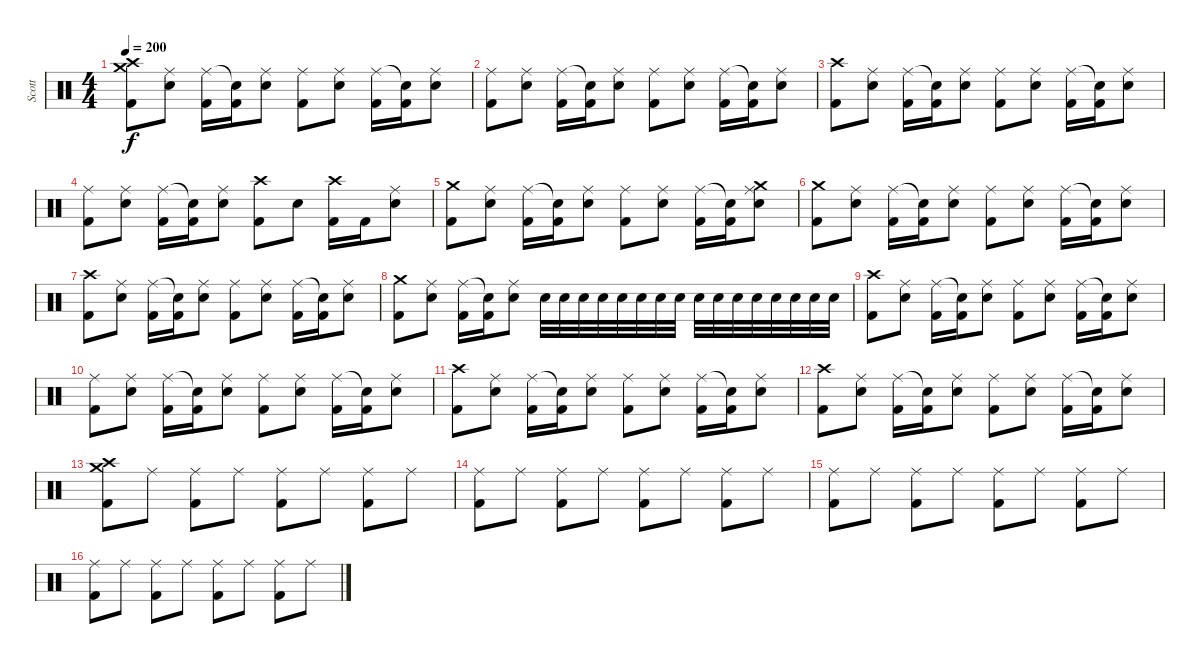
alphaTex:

\track ("Scott" "Scott") {instrument percussion}
\staff {score}
\articulation defaults
\ts (4 4)
\tempo 200
\clef neutral
\ks c
("Crash medium (hit)" "Crash high (hit)" "Kick (hit) 2").8{dy f} ("Ride (middle)" "Snare (hit) 2").8 ("Ride (middle)" "Kick (hit) 2").16 ("Snare (hit)"{t} "Kick (hit) 2").16 ("Ride (middle)" "Snare (hit) 2").8 ("Ride (middle)" "Kick (hit) 2").8 ("Ride (middle)" "Snare (hit) 2").8 ("Ride (middle)" "Kick (hit) 2").16 ("Snare (hit)"{t} "Kick (hit) 2").16 ("Ride (middle)" "Snare (hit) 2").8 |
("Ride (middle)" "Kick (hit) 2").8 ("Ride (middle)" "Snare (hit) 2").8 ("Ride (middle)" "Kick (hit) 2").16 ("Snare (hit)"{t} "Kick (hit) 2").16 ("Ride (middle)" "Snare (hit) 2").8 ("Ride (middle)" "Kick (hit) 2").8 ("Ride (middle)" "Snare (hit) 2").8 ("Ride (middle)" "Kick (hit) 2").16 ("Snare (hit)"{t} "Kick (hit) 2").16 ("Ride (middle)" "Snare (hit) 2").8 |
("Crash high (hit)" "Kick (hit) 2").8 ("Ride (middle)" "Snare (hit) 2").8 ("Ride (middle)" "Kick (hit) 2").16 ("Snare (hit)"{t} "Kick (hit) 2").16 ("Ride (middle)" "Snare (hit) 2").8 ("Ride (middle)" "Kick (hit) 2").8 ("Ride (middle)" "Snare (hit) 2").8 ("Ride (middle)" "Kick (hit) 2").16 ("Snare (hit)"{t} "Kick (hit) 2").16 ("Ride (middle)" "Snare (hit) 2").8 |
("Ride (middle)" "Kick (hit) 2").8 ("Ride (middle)" "Snare (hit) 2").8 ("Ride (middle)" "Kick (hit) 2").16 ("Snare (hit)"{t} "Kick (hit) 2").16 ("Ride (middle)" "Snare (hit) 2").8 ("Crash high (hit)" "Kick (hit) 2").8 "Snare (hit) 2".8 ("Crash high (hit)" "Kick (hit) 2").16 "Kick (hit) 2".16 ("Ride (middle)" "Snare (hit) 2").8 |
("Crash medium (hit)" "Kick (hit) 2").8 ("Ride (middle)" "Snare (hit) 2").8 ("Ride (middle)" "Kick (hit) 2").16 ("Snare (hit)"{t} "Kick (hit) 2").16 ("Ride (middle)" "Snare (hit) 2").8 ("Ride (middle)" "Kick (hit) 2").8 ("Ride (middle)" "Snare (hit) 2").8 ("Ride (middle)" "Kick (hit) 2").16 ("Snare (hit)"{t} "Kick (hit) 2").16 ("Crash medium (hit)" "Ride (middle)" "Snare (hit) 2").8 |
("Crash medium (hit)" "Kick (hit) 2").8 ("Ride (middle)" "Snare (hit) 2").8 ("Ride (middle)" "Kick (hit) 2").16 ("Snare (hit)"{t} "Kick (hit) 2").16 ("Ride (middle)" "Snare (hit) 2").8 ("Ride (middle)" "Kick (hit) 2").8 ("Ride (middle)" "Snare (hit) 2").8 ("Ride (middle)" "Kick (hit) 2").16 ("Snare (hit)"{t} "Kick (hit) 2").16 ("Ride (middle)" "Snare (hit) 2").8 |
("Crash high (hit)" "Kick (hit) 2").8 ("Ride (middle)" "Snare (hit) 2").8 ("Ride (middle)" "Kick (hit) 2").16 ("Snare (hit)"{t} "Kick (hit) 2").16 ("Ride (middle)" "Snare (hit) 2").8 ("Ride (middle)" "Kick (hit) 2").8 ("Ride (middle)" "Snare (hit) 2").8 ("Ride (middle)" "Kick (hit) 2").16 ("Snare (hit)"{t} "Kick (hit) 2").16 ("Ride (middle)" "Snare (hit) 2").8 |
("Crash medium (hit)" "Kick (hit) 2").8 ("Ride (middle)" "Snare (hit) 2").8 ("Ride (middle)" "Kick (hit) 2").16 ("Snare (hit)"{t} "Kick (hit) 2").16 ("Ride (middle)" "Snare (hit) 2").8 "Snare (hit) 2".32 "Snare (hit) 2".32 "Snare (hit) 2".32 "Snare (hit) 2".32 "Snare (hit) 2".32 "Snare (hit) 2".32 "Snare (hit) 2".32 "Snare (hit) 2".32 "Snare (hit) 2".32 "Snare (hit) 2".32 "Snare (hit) 2".32 "Snare (hit) 2".32 "Snare (hit) 2".32 "Snare (hit) 2".32 "Snare (hit) 2".32 "Snare (hit) 2".32 |
("Crash high (hit)" "Kick (hit) 2").8 ("Ride (middle)" "Snare (hit) 2").8 ("Ride (middle)" "Kick (hit) 2").16 ("Snare (hit)"{t} "Kick (hit) 2").16 ("Ride (middle)" "Snare (hit) 2").8 ("Ride (middle)" "Kick (hit) 2").8 ("Ride (middle)" "Snare (hit) 2").8 ("Ride (middle)" "Kick (hit) 2").16 ("Snare (hit)"{t} "Kick (hit) 2").16 ("Ride (middle)" "Snare (hit) 2").8 |
("Ride (middle)" "Kick (hit) 2").8 ("Ride (middle)" "Snare (hit) 2").8 ("Ride (middle)" "Kick (hit) 2").16 ("Snare (hit)"{t} "Kick (hit) 2").16 ("Ride (middle)" "Snare (hit) 2").8 ("Ride (middle)" "Kick (hit) 2").8 ("Ride (middle)" "Snare (hit) 2").8 ("Ride (middle)" "Kick (hit) 2").16 ("Snare (hit)"{t} "Kick (hit) 2").16 ("Ride (middle)" "Snare (hit) 2").8 |
("Crash high (hit)" "Kick (hit) 2").8 ("Ride (middle)" "Snare (hit) 2").8 ("Ride (middle)" "Kick (hit) 2").16 ("Snare (hit)"{t} "Kick (hit) 2").16 ("Ride (middle)" "Snare (hit) 2").8 ("Ride (middle)" "Kick (hit) 2").8 ("Ride (middle)" "Snare (hit) 2").8 ("Ride (middle)" "Kick (hit) 2").16 ("Snare (hit)"{t} "Kick (hit) 2").16 ("Ride (middle)" "Snare (hit) 2").8 |
("Crash high (hit)" "Kick (hit) 2").8 ("Ride (middle)" "Snare (hit) 2").8 ("Ride (middle)" "Kick (hit) 2").16 ("Snare (hit)"{t} "Kick (hit) 2").16 ("Ride (middle)" "Snare (hit) 2").8 ("Ride (middle)" "Kick (hit) 2").8 ("Ride (middle)" "Snare (hit) 2").8 ("Ride (middle)" "Kick (hit) 2").16 ("Snare (hit)"{t} "Kick (hit) 2").16 ("Ride (middle)" "Snare (hit) 2").8 |
("Crash medium (hit)" "Crash high (hit)" "Kick (hit) 2").8 "Ride (middle)".8 ("Ride (middle)" "Kick (hit) 2").8 "Ride (middle)".8 ("Ride (middle)" "Kick (hit) 2").8 "Ride (middle)".8 ("Ride (middle)" "Kick (hit) 2").8 "Ride (middle)".8 |
("Ride (middle)" "Kick (hit) 2").8 "Ride (middle)".8 ("Ride (middle)" "Kick (hit) 2").8 "Ride (middle)".8 ("Ride (middle)" "Kick (hit) 2").8 "Ride (middle)".8 ("Ride (middle)" "Kick (hit) 2").8 "Ride (middle)".8 |
("Ride (middle)" "Kick (hit) 2").8 "Ride (middle)".8 ("Ride (middle)" "Kick (hit) 2").8 "Ride (middle)".8 ("Ride (middle)" "Kick (hit) 2").8 "Ride (middle)".8 ("Ride (middle)" "Kick (hit) 2").8 "Ride (middle)".8 |
("Ride (middle)" "Kick (hit) 2").8 "Ride (middle)".8 ("Ride (middle)" "Kick (hit) 2").8 "Ride (middle)".8 ("Ride (middle)" "Kick (hit) 2").8 "Ride (middle)".8 ("Ride (middle)" "Kick (hit) 2").8 "Ride (middle)".8
